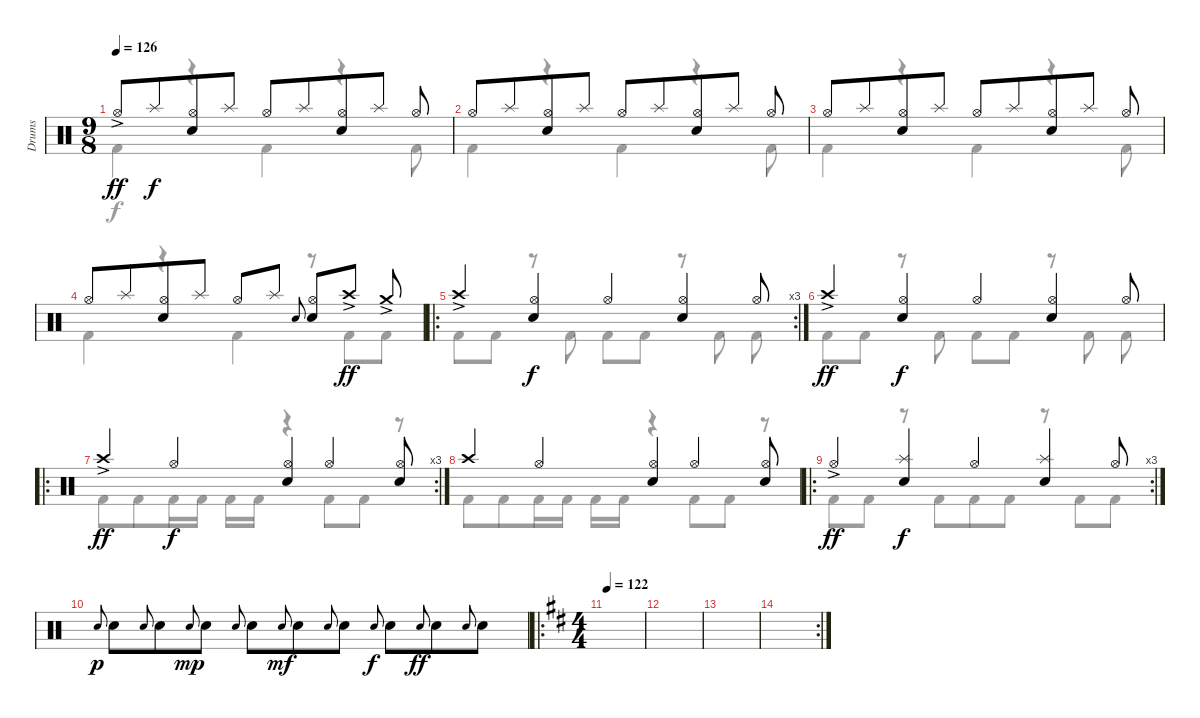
\track ("Drums" "Drums") {instrument percussion}
\staff {score}
\articulation defaults
\voice
\ts (9 8)
\tempo 126
\clef neutral
\ks c "Hi-Hat (open)"{ac}.8{dy ff} "Splash (hit)".8{dy f}
("Hi-Hat (open)" "Electric Snare (hit)").8{beam merge} "Splash (hit)".8{beam split} "Hi-Hat (open)".8 "Splash (hit)".8{beam merge} ("Hi-Hat (open)" "Electric Snare (hit)").8 "Splash (hit)".8{beam split} "Hi-Hat (open)".8 |
"Hi-Hat (open)".8 "Splash (hit)".8 ("Hi-Hat (open)" "Electric Snare (hit)").8{beam merge} "Splash (hit)".8{beam split} "Hi-Hat (open)".8 "Splash (hit)".8{beam merge} ("Hi-Hat (open)" "Electric Snare (hit)").8 "Splash (hit)".8{beam split} "Hi-Hat (open)".8 |
"Hi-Hat (open)".8 "Splash (hit)".8 ("Hi-Hat (open)" "Electric Snare (hit)").8{beam merge} "Splash (hit)".8{beam split} "Hi-Hat (open)".8 "Splash (hit)".8{beam merge} ("Hi-Hat (open)" "Electric Snare (hit)").8{beam merge} "Splash (hit)".8{beam split} "Hi-Hat (open)".8 |
"Hi-Hat (open)".8 "Splash (hit)".8 ("Hi-Hat (open)" "Electric Snare (hit)").8{beam merge} "Splash (hit)".8{beam split} "Hi-Hat (open)".8 "Splash (hit)".8 "Electric Snare (hit)".8{gr onbeat beam merge} ("Hi-Hat (open)" "Electric Snare (hit)").8{beam merge} "Crash high (hit)"{ac}.8{dy ff beam split} "Crash medium (hit)"{ac}.8 |
\ro
\rc 3 "Crash high (hit)"{ac}.4
("Hi-Hat (open)" "Electric Snare (hit)").4{dy f} "Hi-Hat (open)".4 ("Hi-Hat (open)" "Electric Snare (hit)").4 "Hi-Hat (open)".8 |
"Crash high (hit)"{ac}.4{dy ff} ("Hi-Hat (open)" "Electric Snare (hit)").4{dy f} "Hi-Hat (open)".4 ("Hi-Hat (open)" "Electric Snare (hit)").4 "Hi-Hat (open)".8 |
\ro
\rc 3 "Crash high (hit)"{ac}.4{dy ff} "Hi-Hat (open)".4{dy f}
("Hi-Hat (open)" "Electric Snare (hit)").4 "Hi-Hat (open)".4 ("Hi-Hat (open)" "Electric Snare (hit)").8 |
"Crash high (hit)".4 "Hi-Hat (open)".4 ("Hi-Hat (open)" "Electric Snare (hit)").4 "Hi-Hat (open)".4 ("Hi-Hat (open)" "Electric Snare (hit)").8 |
\ro
\rc 3 "Hi-Hat (open)"{ac}.4{dy ff}
("Splash (hit)" "Electric Snare (hit)").4{dy f} "Hi-Hat (open)".4 ("Splash (hit)" "Electric Snare (hit)").4 "Hi-Hat (open)".8 |
"Electric Snare (hit)".8{gr onbeat dy p} "Electric Snare (hit)".8 "Electric Snare (hit)".8{gr onbeat} "Electric Snare (hit)".8 "Electric Snare (hit)".8{gr onbeat dy mp} "Electric Snare (hit)".8 "Electric Snare (hit)".8{gr onbeat} "Electric Snare (hit)".8 "Electric Snare (hit)".8{gr onbeat dy mf} "Electric Snare (hit)".8 "Electric Snare (hit)".8{gr onbeat} "Electric Snare (hit)".8 "Electric Snare (hit)".8{gr onbeat dy f} "Electric Snare (hit)".8 "Electric Snare (hit)".8{gr onbeat dy ff} "Electric Snare (hit)".8 "Electric Snare (hit)".8{gr onbeat} "Electric Snare (hit)".8 |
\ro
\ts (4 4)
\tempo 122
\ks d
|
|
|
\rc 2
|
|
\voice
\clef neutral
\ottava regular
\simile none
\ks c "Kick (hit) 2".4{dy f}
r.4 "Kick (hit) 2".4 r.4 "Kick (hit) 2".8 |
"Kick (hit) 2".4 r.4 "Kick (hit) 2".4 r.4 "Kick (hit) 2".8 |
"Kick (hit) 2".4 r.4 "Kick (hit) 2".4 r.4 "Kick (hit) 2".8 |
"Kick (hit) 2".4 r.4 "Kick (hit) 2".4 r.8 "Kick (hit) 2".8 "Kick (hit) 2".8 |
"Kick (hit) 2".8 "Kick (hit) 2".8 r.8 "Kick (hit) 2".8{beam Down beam split} "Kick (hit) 2".8{beam Down} "Kick (hit) 2".8{beam Down} r.8 "Kick (hit) 2".8{beam split} "Kick (hit) 2".8 |
"Kick (hit) 2".8 "Kick (hit) 2".8 r.8 "Kick (hit) 2".8{beam Down beam split} "Kick (hit) 2".8{beam Down} "Kick (hit) 2".8{beam Down} r.8 "Kick (hit) 2".8{beam split} "Kick (hit) 2".8 |
"Kick (hit) 2".8 "Kick (hit) 2".8 "Kick (hit) 2".16 "Kick (hit) 2".16 "Kick (hit) 2".16 "Kick (hit) 2".16 r.4 "Kick (hit) 2".8 "Kick (hit) 2".8 r.8 |
"Kick (hit) 2".8 "Kick (hit) 2".8 "Kick (hit) 2".16 "Kick (hit) 2".16 "Kick (hit) 2".16 "Kick (hit) 2".16 r.4 "Kick (hit) 2".8 "Kick (hit) 2".8 r.8 |
"Kick (hit) 2".8{dy ff} "Kick (hit) 2".8 r.8 "Kick (hit) 2".8 "Kick (hit) 2".8 "Kick (hit) 2".8 r.8 "Kick (hit) 2".8 "Kick (hit) 2".8 |
|
\ks d
|
|
|
|
|
